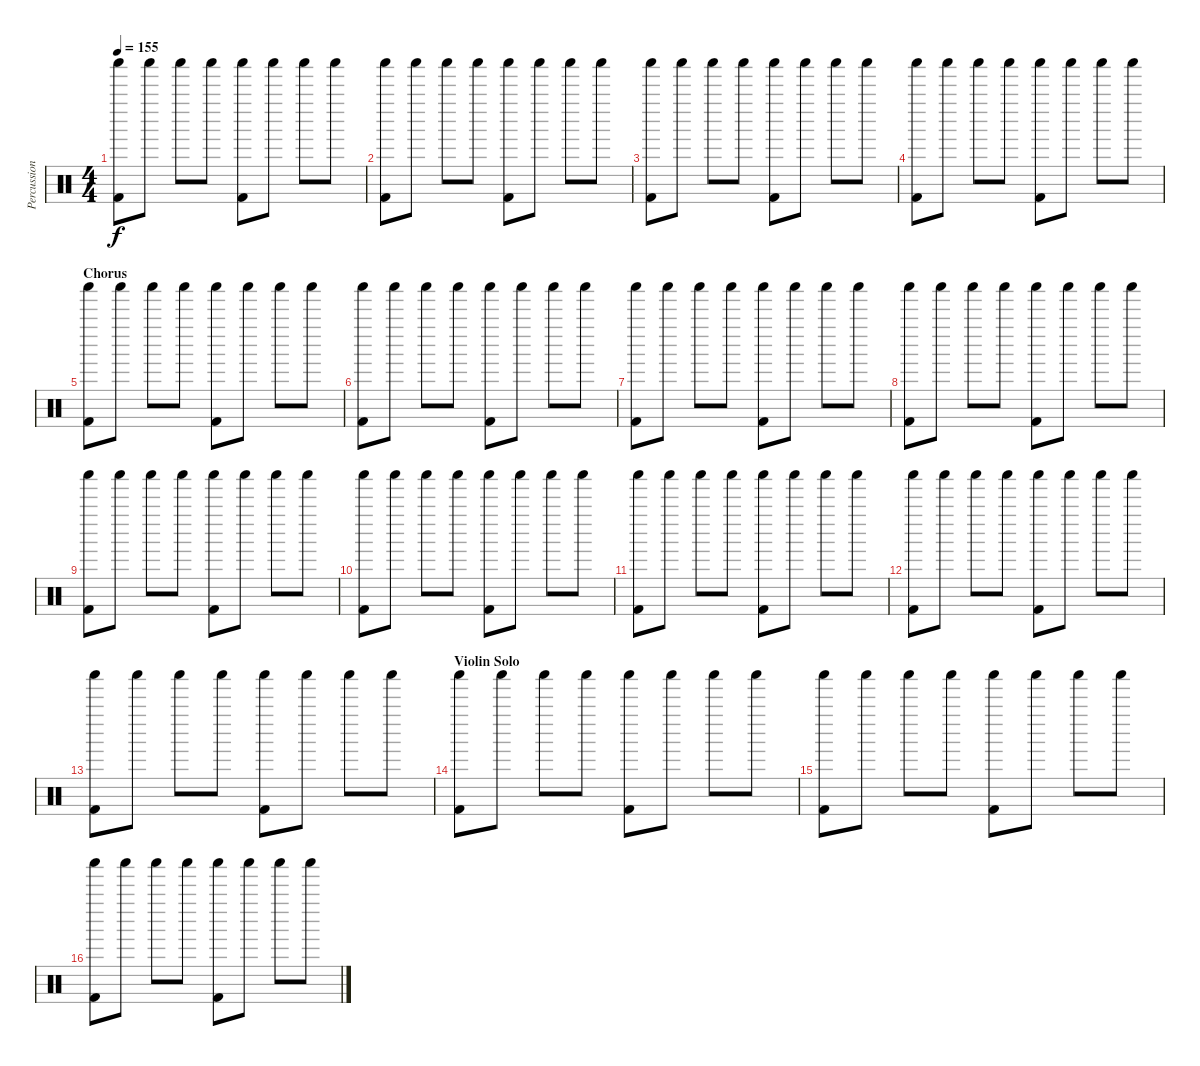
\track ("Percussion" "Percussion") {instrument percussion}
\staff {score}
\articulation defaults
\ts (4 4)
\tempo 155
\clef neutral
\ks c
("Kick (hit) 2" "Shaker (hit)").8{dy f} "Shaker (hit)".8 "Shaker (hit)".8 "Shaker (hit)".8 ("Kick (hit) 2" "Shaker (hit)").8 "Shaker (hit)".8 "Shaker (hit)".8 "Shaker (hit)".8 |
("Kick (hit) 2" "Shaker (hit)").8 "Shaker (hit)".8 "Shaker (hit)".8 "Shaker (hit)".8 ("Kick (hit) 2" "Shaker (hit)").8 "Shaker (hit)".8 "Shaker (hit)".8 "Shaker (hit)".8 |
("Kick (hit) 2" "Shaker (hit)").8 "Shaker (hit)".8 "Shaker (hit)".8 "Shaker (hit)".8 ("Kick (hit) 2" "Shaker (hit)").8 "Shaker (hit)".8 "Shaker (hit)".8 "Shaker (hit)".8 |
("Kick (hit) 2" "Shaker (hit)").8 "Shaker (hit)".8 "Shaker (hit)".8 "Shaker (hit)".8 ("Kick (hit) 2" "Shaker (hit)").8 "Shaker (hit)".8 "Shaker (hit)".8 "Shaker (hit)".8 |
\section ("" "Chorus")
("Kick (hit) 2" "Shaker (hit)").8 "Shaker (hit)".8 "Shaker (hit)".8 "Shaker (hit)".8 ("Kick (hit) 2" "Shaker (hit)").8 "Shaker (hit)".8 "Shaker (hit)".8 "Shaker (hit)".8 |
("Kick (hit) 2" "Shaker (hit)").8 "Shaker (hit)".8 "Shaker (hit)".8 "Shaker (hit)".8 ("Kick (hit) 2" "Shaker (hit)").8 "Shaker (hit)".8 "Shaker (hit)".8 "Shaker (hit)".8 |
("Kick (hit) 2" "Shaker (hit)").8 "Shaker (hit)".8 "Shaker (hit)".8 "Shaker (hit)".8 ("Kick (hit) 2" "Shaker (hit)").8 "Shaker (hit)".8 "Shaker (hit)".8 "Shaker (hit)".8 |
("Kick (hit) 2" "Shaker (hit)").8 "Shaker (hit)".8 "Shaker (hit)".8 "Shaker (hit)".8 ("Kick (hit) 2" "Shaker (hit)").8 "Shaker (hit)".8 "Shaker (hit)".8 "Shaker (hit)".8 |
("Kick (hit) 2" "Shaker (hit)").8 "Shaker (hit)".8 "Shaker (hit)".8 "Shaker (hit)".8 ("Kick (hit) 2" "Shaker (hit)").8 "Shaker (hit)".8 "Shaker (hit)".8 "Shaker (hit)".8 |
("Kick (hit) 2" "Shaker (hit)").8 "Shaker (hit)".8 "Shaker (hit)".8 "Shaker (hit)".8 ("Kick (hit) 2" "Shaker (hit)").8 "Shaker (hit)".8 "Shaker (hit)".8 "Shaker (hit)".8 |
("Kick (hit) 2" "Shaker (hit)").8 "Shaker (hit)".8 "Shaker (hit)".8 "Shaker (hit)".8 ("Kick (hit) 2" "Shaker (hit)").8 "Shaker (hit)".8 "Shaker (hit)".8 "Shaker (hit)".8 |
("Kick (hit) 2" "Shaker (hit)").8 "Shaker (hit)".8 "Shaker (hit)".8 "Shaker (hit)".8 ("Kick (hit) 2" "Shaker (hit)").8 "Shaker (hit)".8 "Shaker (hit)".8 "Shaker (hit)".8 |
("Kick (hit) 2" "Shaker (hit)").8 "Shaker (hit)".8 "Shaker (hit)".8 "Shaker (hit)".8 ("Kick (hit) 2" "Shaker (hit)").8 "Shaker (hit)".8 "Shaker (hit)".8 "Shaker (hit)".8 |
\section ("" "Violin Solo")
("Kick (hit) 2" "Shaker (hit)").8 "Shaker (hit)".8 "Shaker (hit)".8 "Shaker (hit)".8 ("Kick (hit) 2" "Shaker (hit)").8 "Shaker (hit)".8 "Shaker (hit)".8 "Shaker (hit)".8 |
("Kick (hit) 2" "Shaker (hit)").8 "Shaker (hit)".8 "Shaker (hit)".8 "Shaker (hit)".8 ("Kick (hit) 2" "Shaker (hit)").8 "Shaker (hit)".8 "Shaker (hit)".8 "Shaker (hit)".8 |
("Kick (hit) 2" "Shaker (hit)").8 "Shaker (hit)".8 "Shaker (hit)".8 "Shaker (hit)".8 ("Kick (hit) 2" "Shaker (hit)").8 "Shaker (hit)".8 "Shaker (hit)".8 "Shaker (hit)".8
